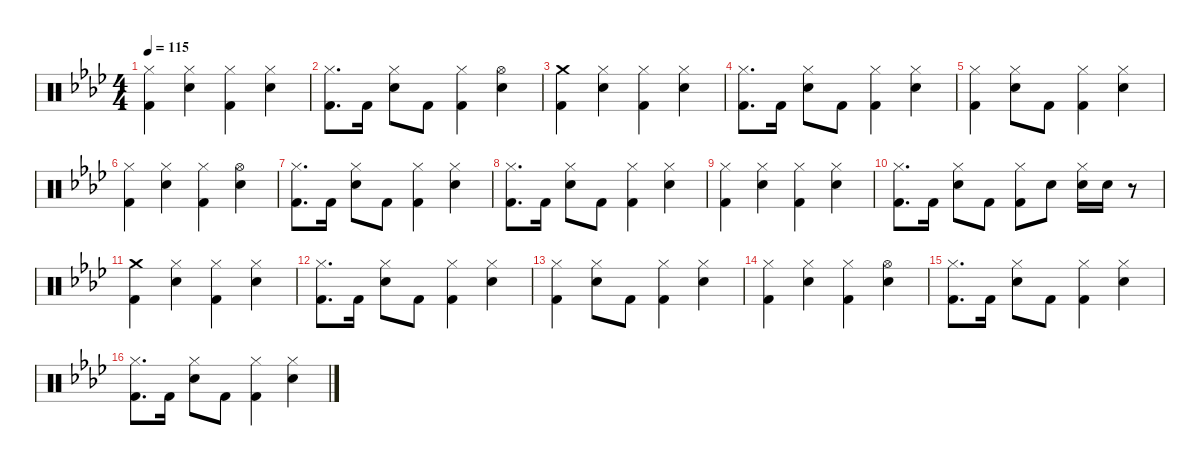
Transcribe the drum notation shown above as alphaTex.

\defaultSystemsLayout 4
\hideDynamics
\bracketExtendMode nobrackets
\singleTrackTrackNamePolicy hidden
\multiTrackTrackNamePolicy hidden
\firstSystemTrackNameMode fullname
\firstSystemTrackNameOrientation horizontal
\otherSystemsTrackNameOrientation horizontal
\track ("Drums" "drm.") {instrument percussion}
\staff {score}
\articulation defaults
\ts (4 4)
\tempo 115
\clef neutral
\ks ab
("Hi-Hat (closed)"{acc forcenatural} "Kick (hit) 2"{acc forcenatural}).4{dy f beam Down} ("Hi-Hat (closed)"{acc forcenatural} "Snare (hit) 2"{acc forcenatural}).4{beam Down} ("Hi-Hat (closed)"{acc forcenatural} "Kick (hit) 2"{acc forcenatural}).4{beam Down} ("Hi-Hat (closed)"{acc forcenatural} "Snare (hit) 2"{acc forcenatural}).4{beam Down} |
("Hi-Hat (closed)"{acc forcenatural} "Kick (hit) 2"{acc forcenatural}).8{d beam Down} "Kick (hit) 2"{acc forcenatural}.16{beam Down} ("Hi-Hat (closed)"{acc forcenatural} "Snare (hit) 2"{acc forcenatural}).8{beam Down} "Kick (hit) 2"{acc forcenatural}.8{beam Down} ("Hi-Hat (closed)"{acc forcenatural} "Kick (hit) 2"{acc forcenatural}).4{beam Down} ("Hi-Hat (open)"{acc forcenatural} "Snare (hit) 2"{acc forcenatural}).4{beam Down} |
("Crash medium (hit)"{acc forcenatural} "Kick (hit) 2"{acc forcenatural}).4{beam Down} ("Hi-Hat (closed)"{acc forcenatural} "Snare (hit) 2"{acc forcenatural}).4{beam Down} ("Hi-Hat (closed)"{acc forcenatural} "Kick (hit) 2"{acc forcenatural}).4{beam Down} ("Hi-Hat (closed)"{acc forcenatural} "Snare (hit) 2"{acc forcenatural}).4{beam Down} |
("Hi-Hat (closed)"{acc forcenatural} "Kick (hit) 2"{acc forcenatural}).8{d beam Down} "Kick (hit) 2"{acc forcenatural}.16{beam Down} ("Hi-Hat (closed)"{acc forcenatural} "Snare (hit) 2"{acc forcenatural}).8{beam Down} "Kick (hit) 2"{acc forcenatural}.8{beam Down} ("Hi-Hat (closed)"{acc forcenatural} "Kick (hit) 2"{acc forcenatural}).4{beam Down} ("Hi-Hat (closed)"{acc forcenatural} "Snare (hit) 2"{acc forcenatural}).4{beam Down} |
("Hi-Hat (closed)"{acc forcenatural} "Kick (hit) 2"{acc forcenatural}).4{beam Down} ("Hi-Hat (closed)"{acc forcenatural} "Snare (hit) 2"{acc forcenatural}).8{beam Down} "Kick (hit) 2"{acc forcenatural}.8{beam Down} ("Hi-Hat (closed)"{acc forcenatural} "Kick (hit) 2"{acc forcenatural}).4{beam Down} ("Hi-Hat (closed)"{acc forcenatural} "Snare (hit) 2"{acc forcenatural}).4{beam Down} |
("Hi-Hat (closed)"{acc forcenatural} "Kick (hit) 2"{acc forcenatural}).4{beam Down} ("Hi-Hat (closed)"{acc forcenatural} "Snare (hit) 2"{acc forcenatural}).4{beam Down} ("Hi-Hat (closed)"{acc forcenatural} "Kick (hit) 2"{acc forcenatural}).4{beam Down} ("Hi-Hat (open)"{acc forcenatural} "Snare (hit) 2"{acc forcenatural}).4{beam Down} |
("Hi-Hat (closed)"{acc forcenatural} "Kick (hit) 2"{acc forcenatural}).8{d beam Down} "Kick (hit) 2"{acc forcenatural}.16{beam Down} ("Hi-Hat (closed)"{acc forcenatural} "Snare (hit) 2"{acc forcenatural}).8{beam Down} "Kick (hit) 2"{acc forcenatural}.8{beam Down} ("Hi-Hat (closed)"{acc forcenatural} "Kick (hit) 2"{acc forcenatural}).4{beam Down} ("Hi-Hat (closed)"{acc forcenatural} "Snare (hit) 2"{acc forcenatural}).4{beam Down} |
("Hi-Hat (closed)"{acc forcenatural} "Kick (hit) 2"{acc forcenatural}).8{d beam Down} "Kick (hit) 2"{acc forcenatural}.16{beam Down} ("Hi-Hat (closed)"{acc forcenatural} "Snare (hit) 2"{acc forcenatural}).8{beam Down} "Kick (hit) 2"{acc forcenatural}.8{beam Down} ("Hi-Hat (closed)"{acc forcenatural} "Kick (hit) 2"{acc forcenatural}).4{beam Down} ("Hi-Hat (closed)"{acc forcenatural} "Snare (hit) 2"{acc forcenatural}).4{beam Down} |
("Hi-Hat (closed)"{acc forcenatural} "Kick (hit) 2"{acc forcenatural}).4{beam Down} ("Hi-Hat (closed)"{acc forcenatural} "Snare (hit) 2"{acc forcenatural}).4{beam Down} ("Hi-Hat (closed)"{acc forcenatural} "Kick (hit) 2"{acc forcenatural}).4{beam Down} ("Hi-Hat (closed)"{acc forcenatural} "Snare (hit) 2"{acc forcenatural}).4{beam Down} |
("Hi-Hat (closed)"{acc forcenatural} "Kick (hit) 2"{acc forcenatural}).8{d beam Down} "Kick (hit) 2"{acc forcenatural}.16{beam Down} ("Hi-Hat (closed)"{acc forcenatural} "Snare (hit) 2"{acc forcenatural}).8{beam Down} "Kick (hit) 2"{acc forcenatural}.8{beam Down} ("Hi-Hat (closed)"{acc forcenatural} "Kick (hit) 2"{acc forcenatural}).8{beam Down} "Snare (hit) 2"{acc forcenatural}.8{beam Down} ("Hi-Hat (closed)"{acc forcenatural} "Snare (hit) 2"{acc forcenatural}).16{beam Down} "Snare (hit) 2"{acc forcenatural}.16{beam Down} r.8{beam Down} |
("Crash medium (hit)"{acc forcenatural} "Kick (hit) 2"{acc forcenatural}).4{beam Down} ("Hi-Hat (closed)"{acc forcenatural} "Snare (hit) 2"{acc forcenatural}).4{beam Down} ("Hi-Hat (closed)"{acc forcenatural} "Kick (hit) 2"{acc forcenatural}).4{beam Down} ("Hi-Hat (closed)"{acc forcenatural} "Snare (hit) 2"{acc forcenatural}).4{beam Down} |
("Hi-Hat (closed)"{acc forcenatural} "Kick (hit) 2"{acc forcenatural}).8{d beam Down} "Kick (hit) 2"{acc forcenatural}.16{beam Down} ("Hi-Hat (closed)"{acc forcenatural} "Snare (hit) 2"{acc forcenatural}).8{beam Down} "Kick (hit) 2"{acc forcenatural}.8{beam Down} ("Hi-Hat (closed)"{acc forcenatural} "Kick (hit) 2"{acc forcenatural}).4{beam Down} ("Hi-Hat (closed)"{acc forcenatural} "Snare (hit) 2"{acc forcenatural}).4{beam Down} |
("Hi-Hat (closed)"{acc forcenatural} "Kick (hit) 2"{acc forcenatural}).4{beam Down} ("Hi-Hat (closed)"{acc forcenatural} "Snare (hit) 2"{acc forcenatural}).8{beam Down} "Kick (hit) 2"{acc forcenatural}.8{beam Down} ("Hi-Hat (closed)"{acc forcenatural} "Kick (hit) 2"{acc forcenatural}).4{beam Down} ("Hi-Hat (closed)"{acc forcenatural} "Snare (hit) 2"{acc forcenatural}).4{beam Down} |
("Hi-Hat (closed)"{acc forcenatural} "Kick (hit) 2"{acc forcenatural}).4{beam Down} ("Hi-Hat (closed)"{acc forcenatural} "Snare (hit) 2"{acc forcenatural}).4{beam Down} ("Hi-Hat (closed)"{acc forcenatural} "Kick (hit) 2"{acc forcenatural}).4{beam Down} ("Hi-Hat (open)"{acc forcenatural} "Snare (hit) 2"{acc forcenatural}).4{beam Down} |
("Hi-Hat (closed)"{acc forcenatural} "Kick (hit) 2"{acc forcenatural}).8{d beam Down} "Kick (hit) 2"{acc forcenatural}.16{beam Down} ("Hi-Hat (closed)"{acc forcenatural} "Snare (hit) 2"{acc forcenatural}).8{beam Down} "Kick (hit) 2"{acc forcenatural}.8{beam Down} ("Hi-Hat (closed)"{acc forcenatural} "Kick (hit) 2"{acc forcenatural}).4{beam Down} ("Hi-Hat (closed)"{acc forcenatural} "Snare (hit) 2"{acc forcenatural}).4{beam Down} |
("Hi-Hat (closed)"{acc forcenatural} "Kick (hit) 2"{acc forcenatural}).8{d beam Down} "Kick (hit) 2"{acc forcenatural}.16{beam Down} ("Hi-Hat (closed)"{acc forcenatural} "Snare (hit) 2"{acc forcenatural}).8{beam Down} "Kick (hit) 2"{acc forcenatural}.8{beam Down} ("Hi-Hat (closed)"{acc forcenatural} "Kick (hit) 2"{acc forcenatural}).4{beam Down} ("Hi-Hat (closed)"{acc forcenatural} "Snare (hit) 2"{acc forcenatural}).4{beam Down}
